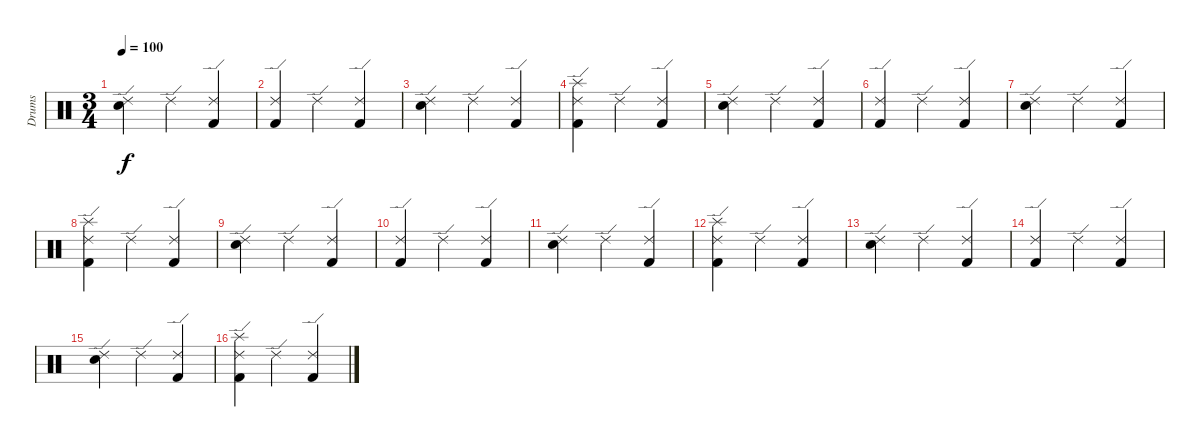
\track ("Drums" "Drums") {instrument percussion}
\staff {score}
\articulation defaults
\ts (3 4)
\tempo 100
\clef neutral
\ks c
("Ride (edge) 2" "Electric Snare (hit)").4{dy f} "Ride (edge) 2".4 ("Ride (edge) 2" "Kick (hit) 2").4 |
("Ride (edge) 2" "Kick (hit) 2").4 "Ride (edge) 2".4 ("Ride (edge) 2" "Kick (hit) 2").4 |
("Ride (edge) 2" "Electric Snare (hit)").4 "Ride (edge) 2".4 ("Ride (edge) 2" "Kick (hit) 2").4 |
("Ride (edge) 2" "Splash (hit)" "Kick (hit) 2").4 "Ride (edge) 2".4 ("Ride (edge) 2" "Kick (hit) 2").4 |
("Ride (edge) 2" "Electric Snare (hit)").4 "Ride (edge) 2".4 ("Ride (edge) 2" "Kick (hit) 2").4 |
("Ride (edge) 2" "Kick (hit) 2").4 "Ride (edge) 2".4 ("Ride (edge) 2" "Kick (hit) 2").4 |
("Ride (edge) 2" "Electric Snare (hit)").4 "Ride (edge) 2".4 ("Ride (edge) 2" "Kick (hit) 2").4 |
("Ride (edge) 2" "Splash (hit)" "Kick (hit) 2").4 "Ride (edge) 2".4 ("Ride (edge) 2" "Kick (hit) 2").4 |
("Ride (edge) 2" "Electric Snare (hit)").4 "Ride (edge) 2".4 ("Ride (edge) 2" "Kick (hit) 2").4 |
("Ride (edge) 2" "Kick (hit) 2").4 "Ride (edge) 2".4 ("Ride (edge) 2" "Kick (hit) 2").4 |
("Ride (edge) 2" "Electric Snare (hit)").4 "Ride (edge) 2".4 ("Ride (edge) 2" "Kick (hit) 2").4 |
("Ride (edge) 2" "Splash (hit)" "Kick (hit) 2").4 "Ride (edge) 2".4 ("Ride (edge) 2" "Kick (hit) 2").4 |
("Ride (edge) 2" "Electric Snare (hit)").4 "Ride (edge) 2".4 ("Ride (edge) 2" "Kick (hit) 2").4 |
("Ride (edge) 2" "Kick (hit) 2").4 "Ride (edge) 2".4 ("Ride (edge) 2" "Kick (hit) 2").4 |
("Ride (edge) 2" "Electric Snare (hit)").4 "Ride (edge) 2".4 ("Ride (edge) 2" "Kick (hit) 2").4 |
("Ride (edge) 2" "Splash (hit)" "Kick (hit) 2").4 "Ride (edge) 2".4 ("Ride (edge) 2" "Kick (hit) 2").4
